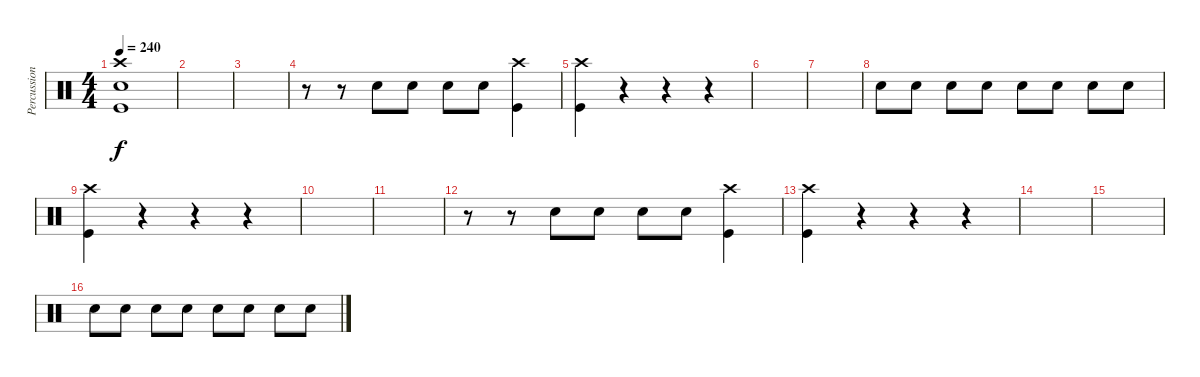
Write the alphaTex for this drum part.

\track ("Percussion" "Percussion") {instrument percussion}
\staff {score}
\articulation defaults
\ts (4 4)
\tempo 240
\clef neutral
\ks c
("Crash high (hit)" "Kick (hit)" "Snare (hit) 2").1{dy f} |
|
|
r.8 r.8 "Snare (hit) 2".8 "Snare (hit) 2".8 "Snare (hit) 2".8 "Snare (hit) 2".8 ("Kick (hit)" "Crash high (hit)").4 |
("Kick (hit)" "Crash high (hit)").4 r.4 r.4 r.4 |
|
|
"Snare (hit) 2".8 "Snare (hit) 2".8 "Snare (hit) 2".8 "Snare (hit) 2".8 "Snare (hit) 2".8 "Snare (hit) 2".8 "Snare (hit) 2".8 "Snare (hit) 2".8 |
("Kick (hit)" "Crash high (hit)").4 r.4 r.4 r.4 |
|
|
r.8 r.8 "Snare (hit) 2".8 "Snare (hit) 2".8 "Snare (hit) 2".8 "Snare (hit) 2".8 ("Kick (hit)" "Crash high (hit)").4 |
("Kick (hit)" "Crash high (hit)").4 r.4 r.4 r.4 |
|
|
"Snare (hit) 2".8 "Snare (hit) 2".8 "Snare (hit) 2".8 "Snare (hit) 2".8 "Snare (hit) 2".8 "Snare (hit) 2".8 "Snare (hit) 2".8 "Snare (hit) 2".8
